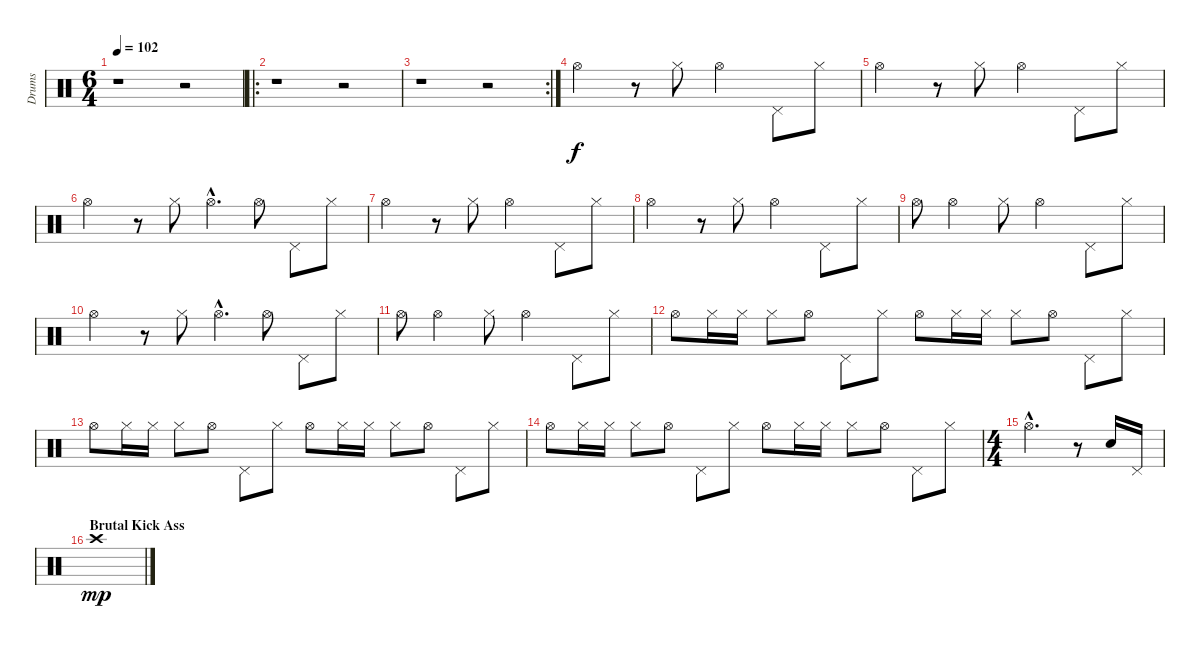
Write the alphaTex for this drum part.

\track ("Drums" "Drums") {instrument percussion}
\staff {score}
\articulation defaults
\ts (6 4)
\tempo 102
\clef neutral
\ks c
r.1{dy f} r.2 |
\ro
r.1 r.2 |
\rc 2
r.1 r.2 |
"Hi-Hat (open)".2 r.8 "Hi-Hat (closed)".8 "Hi-Hat (open)".2 "Pedal Hi-Hat (hit)".8 "Hi-Hat (closed)".8 |
"Hi-Hat (open)".2 r.8 "Hi-Hat (closed)".8 "Hi-Hat (open)".2 "Pedal Hi-Hat (hit)".8 "Hi-Hat (closed)".8 |
"Hi-Hat (open)".2 r.8 "Hi-Hat (closed)".8 "Hi-Hat (open)"{hac}.4{d} "Hi-Hat (open)".8 "Pedal Hi-Hat (hit)".8 "Hi-Hat (closed)".8 |
"Hi-Hat (open)".2 r.8 "Hi-Hat (closed)".8 "Hi-Hat (open)".2 "Pedal Hi-Hat (hit)".8 "Hi-Hat (closed)".8 |
"Hi-Hat (open)".2 r.8 "Hi-Hat (closed)".8 "Hi-Hat (open)".2 "Pedal Hi-Hat (hit)".8 "Hi-Hat (closed)".8 |
"Hi-Hat (open)".8 "Hi-Hat (open)".2 "Hi-Hat (closed)".8 "Hi-Hat (open)".2 "Pedal Hi-Hat (hit)".8 "Hi-Hat (closed)".8 |
"Hi-Hat (open)".2 r.8 "Hi-Hat (closed)".8 "Hi-Hat (open)"{hac}.4{d} "Hi-Hat (open)".8 "Pedal Hi-Hat (hit)".8 "Hi-Hat (closed)".8 |
"Hi-Hat (open)".8 "Hi-Hat (open)".2 "Hi-Hat (closed)".8 "Hi-Hat (open)".2 "Pedal Hi-Hat (hit)".8 "Hi-Hat (closed)".8 |
"Hi-Hat (open)".8 "Hi-Hat (closed)".16 "Hi-Hat (closed)".16 "Hi-Hat (closed)".8 "Hi-Hat (open)".8 "Pedal Hi-Hat (hit)".8 "Hi-Hat (closed)".8 "Hi-Hat (open)".8 "Hi-Hat (closed)".16 "Hi-Hat (closed)".16 "Hi-Hat (closed)".8 "Hi-Hat (open)".8 "Pedal Hi-Hat (hit)".8 "Hi-Hat (closed)".8 |
"Hi-Hat (open)".8 "Hi-Hat (closed)".16 "Hi-Hat (closed)".16 "Hi-Hat (closed)".8 "Hi-Hat (open)".8 "Pedal Hi-Hat (hit)".8 "Hi-Hat (closed)".8 "Hi-Hat (open)".8 "Hi-Hat (closed)".16 "Hi-Hat (closed)".16 "Hi-Hat (closed)".8 "Hi-Hat (open)".8 "Pedal Hi-Hat (hit)".8 "Hi-Hat (closed)".8 |
"Hi-Hat (open)".8 "Hi-Hat (closed)".16 "Hi-Hat (closed)".16 "Hi-Hat (closed)".8 "Hi-Hat (open)".8 "Pedal Hi-Hat (hit)".8 "Hi-Hat (closed)".8 "Hi-Hat (open)".8 "Hi-Hat (closed)".16 "Hi-Hat (closed)".16 "Hi-Hat (closed)".8 "Hi-Hat (open)".8 "Pedal Hi-Hat (hit)".8 "Hi-Hat (closed)".8 |
\ts (4 4)
"Hi-Hat (open)"{hac}.2{d} r.8 "Electric Snare (hit)".16 "Pedal Hi-Hat (hit)".16 |
\section ("" "Brutal Kick Ass")
"Crash high (hit)".1{dy mp}
